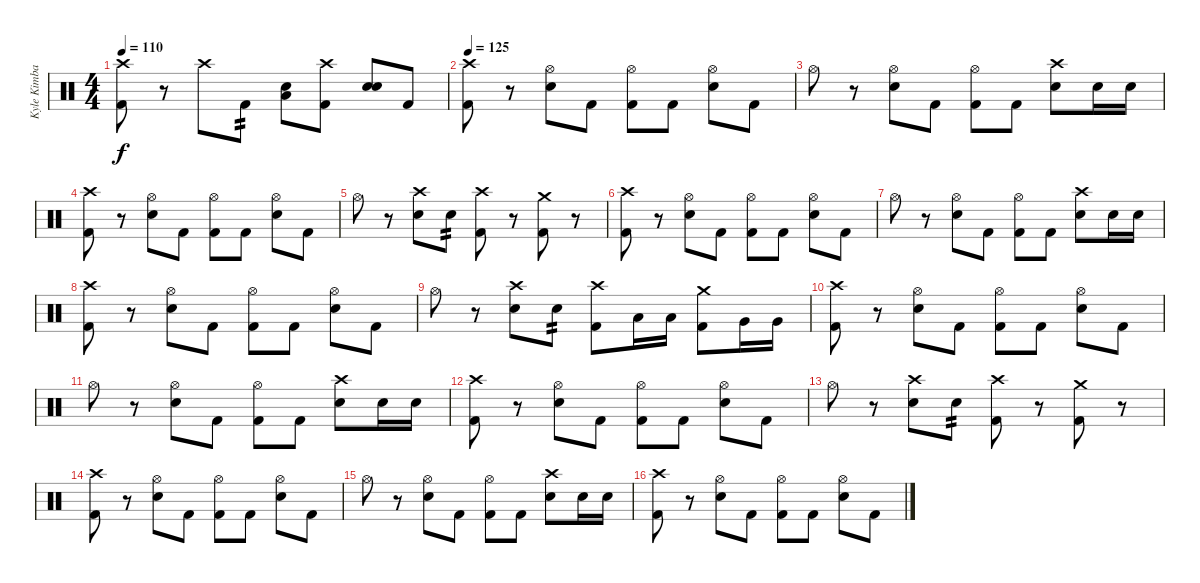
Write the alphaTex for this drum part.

\track ("Kyle Kimball" "Kyle Kimba") {instrument percussion}
\staff
\articulation defaults
\ts (4 4)
\tempo 110
\clef neutral
\ks c
("Kick (hit) 2" "Crash high (hit)").8{dy f} r.8 "Crash high (hit)".8 "Kick (hit) 2".8{tp 2} ("Electric Snare (hit)" "Low Tom (hit)").8{bd 60} ("Kick (hit) 2" "Crash high (hit)").8 ("Electric Snare (hit)" "Electric Snare (hit)").8{bd 60} "Kick (hit) 2".8 |
\tempo 125
("Kick (hit) 2" "Crash high (hit)").8 r.8 ("Electric Snare (hit)" "Hi-Hat (open)").8 "Kick (hit) 2".8 ("Kick (hit) 2" "Hi-Hat (open)").8 "Kick (hit) 2".8 ("Electric Snare (hit)" "Hi-Hat (open)").8 "Kick (hit) 2".8 |
"Hi-Hat (open)".8 r.8 ("Electric Snare (hit)" "Hi-Hat (open)").8 "Kick (hit) 2".8 ("Kick (hit) 2" "Hi-Hat (open)").8 "Kick (hit) 2".8 ("Electric Snare (hit)" "Crash high (hit)").8 "Electric Snare (hit)".16 "Electric Snare (hit)".16 |
("Kick (hit) 2" "Crash high (hit)").8 r.8 ("Electric Snare (hit)" "Hi-Hat (open)").8 "Kick (hit) 2".8 ("Kick (hit) 2" "Hi-Hat (open)").8 "Kick (hit) 2".8 ("Electric Snare (hit)" "Hi-Hat (open)").8 "Kick (hit) 2".8 |
"Hi-Hat (open)".8 r.8 ("Electric Snare (hit)" "Crash high (hit)").8 "Electric Snare (hit)".8{tp 2} ("Kick (hit) 2" "Crash high (hit)").8 r.8 ("Kick (hit) 2" "Crash medium (hit)").8 r.8 |
("Kick (hit) 2" "Crash high (hit)").8 r.8 ("Electric Snare (hit)" "Hi-Hat (open)").8 "Kick (hit) 2".8 ("Kick (hit) 2" "Hi-Hat (open)").8 "Kick (hit) 2".8 ("Electric Snare (hit)" "Hi-Hat (open)").8 "Kick (hit) 2".8 |
"Hi-Hat (open)".8 r.8 ("Electric Snare (hit)" "Hi-Hat (open)").8 "Kick (hit) 2".8 ("Kick (hit) 2" "Hi-Hat (open)").8 "Kick (hit) 2".8 ("Electric Snare (hit)" "Crash high (hit)").8 "Electric Snare (hit)".16 "Electric Snare (hit)".16 |
("Kick (hit) 2" "Crash high (hit)").8 r.8 ("Electric Snare (hit)" "Hi-Hat (open)").8 "Kick (hit) 2".8 ("Kick (hit) 2" "Hi-Hat (open)").8 "Kick (hit) 2".8 ("Electric Snare (hit)" "Hi-Hat (open)").8 "Kick (hit) 2".8 |
"Hi-Hat (open)".8 r.8 ("Electric Snare (hit)" "Crash high (hit)").8 "Electric Snare (hit)".8{tp 2} ("Kick (hit) 2" "Crash high (hit)").8 "Low Tom (hit)".16 "Low Tom (hit)".16 ("Kick (hit) 2" "Crash medium (hit)").8 "Very Low Tom (hit)".16 "Very Low Tom (hit)".16 |
("Kick (hit) 2" "Crash high (hit)").8 r.8 ("Electric Snare (hit)" "Hi-Hat (open)").8 "Kick (hit) 2".8 ("Kick (hit) 2" "Hi-Hat (open)").8 "Kick (hit) 2".8 ("Electric Snare (hit)" "Hi-Hat (open)").8 "Kick (hit) 2".8 |
"Hi-Hat (open)".8 r.8 ("Electric Snare (hit)" "Hi-Hat (open)").8 "Kick (hit) 2".8 ("Kick (hit) 2" "Hi-Hat (open)").8 "Kick (hit) 2".8 ("Electric Snare (hit)" "Crash high (hit)").8 "Electric Snare (hit)".16 "Electric Snare (hit)".16 |
("Kick (hit) 2" "Crash high (hit)").8 r.8 ("Electric Snare (hit)" "Hi-Hat (open)").8 "Kick (hit) 2".8 ("Kick (hit) 2" "Hi-Hat (open)").8 "Kick (hit) 2".8 ("Electric Snare (hit)" "Hi-Hat (open)").8 "Kick (hit) 2".8 |
"Hi-Hat (open)".8 r.8 ("Electric Snare (hit)" "Crash high (hit)").8 "Electric Snare (hit)".8{tp 2} ("Kick (hit) 2" "Crash high (hit)").8 r.8 ("Kick (hit) 2" "Crash medium (hit)").8 r.8 |
("Kick (hit) 2" "Crash high (hit)").8 r.8 ("Electric Snare (hit)" "Hi-Hat (open)").8 "Kick (hit) 2".8 ("Kick (hit) 2" "Hi-Hat (open)").8 "Kick (hit) 2".8 ("Electric Snare (hit)" "Hi-Hat (open)").8 "Kick (hit) 2".8 |
"Hi-Hat (open)".8 r.8 ("Electric Snare (hit)" "Hi-Hat (open)").8 "Kick (hit) 2".8 ("Kick (hit) 2" "Hi-Hat (open)").8 "Kick (hit) 2".8 ("Electric Snare (hit)" "Crash high (hit)").8 "Electric Snare (hit)".16 "Electric Snare (hit)".16 |
("Kick (hit) 2" "Crash high (hit)").8 r.8 ("Electric Snare (hit)" "Hi-Hat (open)").8 "Kick (hit) 2".8 ("Kick (hit) 2" "Hi-Hat (open)").8 "Kick (hit) 2".8 ("Electric Snare (hit)" "Hi-Hat (open)").8 "Kick (hit) 2".8
